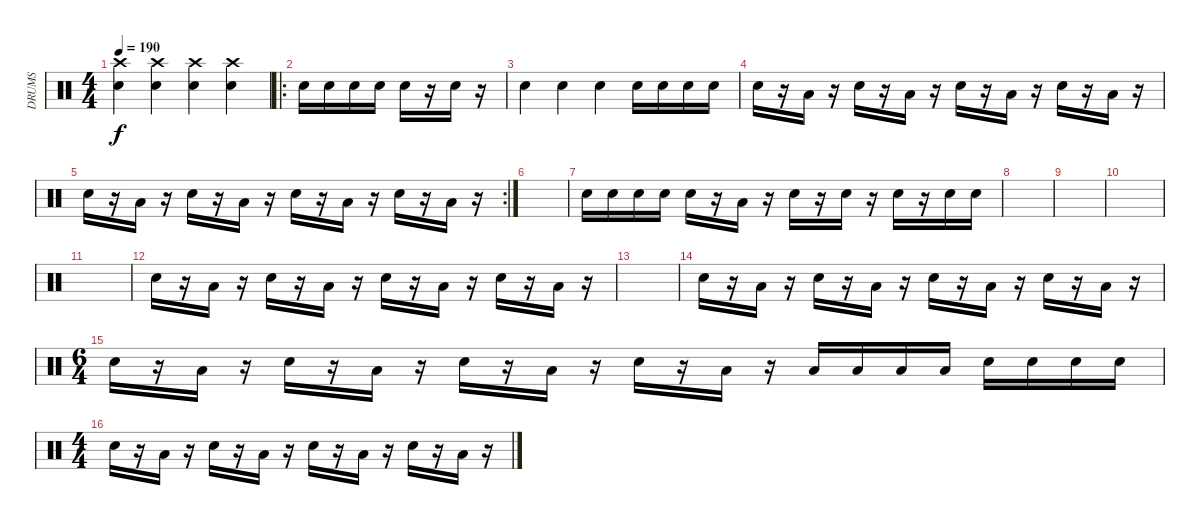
\track ("DRUMS" "DRUMS") {instrument percussion}
\staff {score}
\articulation defaults
\ts (4 4)
\tempo 190
\clef neutral
\ks c
("Crash high (hit)" "Electric Snare (hit)").4{dy f} ("Crash high (hit)" "Snare (hit) 2").4 ("Crash high (hit)" "Electric Snare (hit)").4 ("Crash high (hit)" "Snare (hit) 2").4 |
\ro "Electric Snare (hit)".16 "Electric Snare (hit)".16 "Electric Snare (hit)".16 "Electric Snare (hit)".16 "Electric Snare (hit)".16
r.16 "Electric Snare (hit)".16 r.16 |
"Electric Snare (hit)".4 "Snare (hit) 2".4 "Electric Snare (hit)".4 "Electric Snare (hit)".16 "Electric Snare (hit)".16 "Electric Snare (hit)".16 "Electric Snare (hit)".16 |
"Electric Snare (hit)".16 r.16 "Low Tom (hit)".16 r.16 "Electric Snare (hit)".16 r.16 "Low Tom (hit)".16 r.16 "Electric Snare (hit)".16 r.16 "Low Tom (hit)".16 r.16 "Electric Snare (hit)".16 r.16 "Low Tom (hit)".16 r.16 |
\rc 2 "Electric Snare (hit)".16
r.16 "Low Tom (hit)".16 r.16 "Electric Snare (hit)".16 r.16 "Low Tom (hit)".16 r.16 "Electric Snare (hit)".16 r.16 "Low Tom (hit)".16 r.16 "Electric Snare (hit)".16 r.16 "Low Tom (hit)".16 r.16 |
|
"Electric Snare (hit)".16 "Electric Snare (hit)".16 "Electric Snare (hit)".16 "Electric Snare (hit)".16 "Electric Snare (hit)".16 r.16 "Low Tom (hit)".16 r.16 "Electric Snare (hit)".16 r.16 "Electric Snare (hit)".16 r.16 "Electric Snare (hit)".16 r.16 "Electric Snare (hit)".16 "Electric Snare (hit)".16 |
|
|
|
|
"Electric Snare (hit)".16 r.16 "Low Tom (hit)".16 r.16 "Electric Snare (hit)".16 r.16 "Low Tom (hit)".16 r.16 "Electric Snare (hit)".16 r.16 "Low Tom (hit)".16 r.16 "Electric Snare (hit)".16 r.16 "Low Tom (hit)".16 r.16 |
|
"Electric Snare (hit)".16 r.16 "Low Tom (hit)".16 r.16 "Electric Snare (hit)".16 r.16 "Low Tom (hit)".16 r.16 "Electric Snare (hit)".16 r.16 "Low Tom (hit)".16 r.16 "Electric Snare (hit)".16 r.16 "Low Tom (hit)".16 r.16 |
\ts (6 4)
"Electric Snare (hit)".16 r.16 "Low Tom (hit)".16 r.16 "Electric Snare (hit)".16 r.16 "Low Tom (hit)".16 r.16 "Electric Snare (hit)".16 r.16 "Low Tom (hit)".16 r.16 "Electric Snare (hit)".16 r.16 "Low Tom (hit)".16 r.16 "Low Tom (hit)".16 "Low Tom (hit)".16 "Low Tom (hit)".16 "Low Tom (hit)".16 "Electric Snare (hit)".16 "Electric Snare (hit)".16 "Electric Snare (hit)".16 "Electric Snare (hit)".16 |
\ts (4 4)
"Electric Snare (hit)".16 r.16 "Low Tom (hit)".16 r.16 "Electric Snare (hit)".16 r.16 "Low Tom (hit)".16 r.16 "Electric Snare (hit)".16 r.16 "Low Tom (hit)".16 r.16 "Electric Snare (hit)".16 r.16 "Low Tom (hit)".16 r.16
